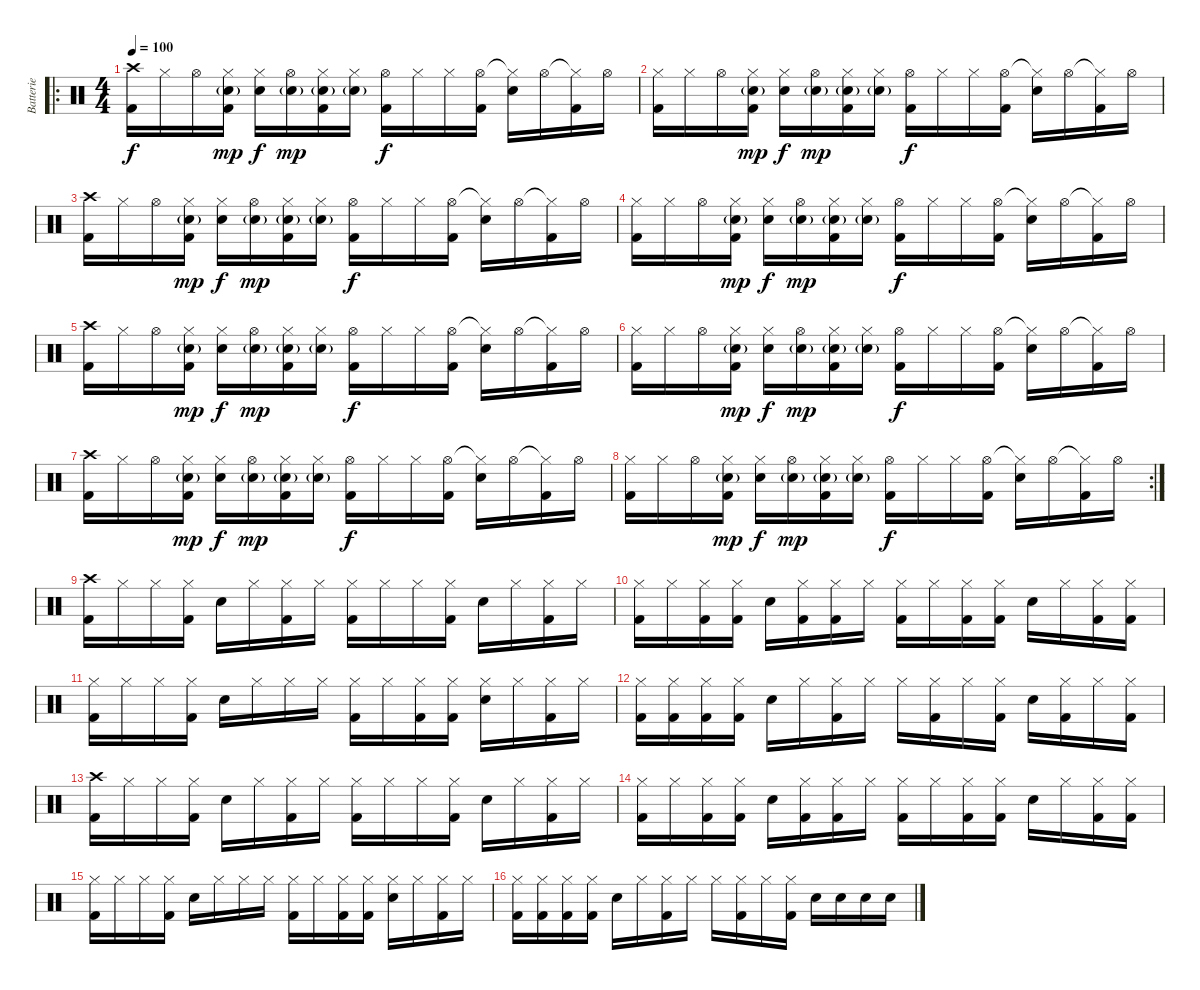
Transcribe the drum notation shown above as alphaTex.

\track ("Batterie" "Batterie") {instrument percussion}
\staff {score}
\articulation defaults
\ro
\ts (4 4)
\tempo 100
\clef neutral
\ks c
("Crash high (hit)" "Kick (hit) 2").16{dy f} "Hi-Hat (closed)".16 "Hi-Hat (open)".16 ("Hi-Hat (closed)" "Snare (hit) 2"{g} "Kick (hit) 2").16{dy mp} ("Hi-Hat (closed)" "Snare (hit) 2").16{dy f} ("Hi-Hat (open)" "Snare (hit) 2"{g}).16{dy mp} ("Hi-Hat (closed)" "Snare (hit) 2"{g} "Kick (hit) 2").16 ("Hi-Hat (closed)" "Snare (hit) 2"{g}).16 ("Hi-Hat (open)" "Kick (hit) 2").16{dy f} "Hi-Hat (closed)".16 "Hi-Hat (closed)".16 ("Hi-Hat (open)" "Kick (hit) 2").16 ("Hi-Hat (closed)"{t} "Snare (hit) 2").16 "Hi-Hat (open)".16 ("Hi-Hat (closed)"{t} "Kick (hit) 2").16 "Hi-Hat (open)".16 |
("Hi-Hat (closed)" "Kick (hit) 2").16 "Hi-Hat (closed)".16 "Hi-Hat (open)".16 ("Hi-Hat (closed)" "Snare (hit) 2"{g} "Kick (hit) 2").16{dy mp} ("Hi-Hat (closed)" "Snare (hit) 2").16{dy f} ("Hi-Hat (open)" "Snare (hit) 2"{g}).16{dy mp} ("Hi-Hat (closed)" "Snare (hit) 2"{g} "Kick (hit) 2").16 ("Hi-Hat (closed)" "Snare (hit) 2"{g}).16 ("Hi-Hat (open)" "Kick (hit) 2").16{dy f} "Hi-Hat (closed)".16 "Hi-Hat (closed)".16 ("Hi-Hat (open)" "Kick (hit) 2").16 ("Hi-Hat (closed)"{t} "Snare (hit) 2").16 "Hi-Hat (open)".16 ("Hi-Hat (closed)"{t} "Kick (hit) 2").16 "Hi-Hat (open)".16 |
("Crash high (hit)" "Kick (hit) 2").16 "Hi-Hat (closed)".16 "Hi-Hat (open)".16 ("Hi-Hat (closed)" "Snare (hit) 2"{g} "Kick (hit) 2").16{dy mp} ("Hi-Hat (closed)" "Snare (hit) 2").16{dy f} ("Hi-Hat (open)" "Snare (hit) 2"{g}).16{dy mp} ("Hi-Hat (closed)" "Snare (hit) 2"{g} "Kick (hit) 2").16 ("Hi-Hat (closed)" "Snare (hit) 2"{g}).16 ("Hi-Hat (open)" "Kick (hit) 2").16{dy f} "Hi-Hat (closed)".16 "Hi-Hat (closed)".16 ("Hi-Hat (open)" "Kick (hit) 2").16 ("Hi-Hat (closed)"{t} "Snare (hit) 2").16 "Hi-Hat (open)".16 ("Hi-Hat (closed)"{t} "Kick (hit) 2").16 "Hi-Hat (open)".16 |
("Hi-Hat (closed)" "Kick (hit) 2").16 "Hi-Hat (closed)".16 "Hi-Hat (open)".16 ("Hi-Hat (closed)" "Snare (hit) 2"{g} "Kick (hit) 2").16{dy mp} ("Hi-Hat (closed)" "Snare (hit) 2").16{dy f} ("Hi-Hat (open)" "Snare (hit) 2"{g}).16{dy mp} ("Hi-Hat (closed)" "Snare (hit) 2"{g} "Kick (hit) 2").16 ("Hi-Hat (closed)" "Snare (hit) 2"{g}).16 ("Hi-Hat (open)" "Kick (hit) 2").16{dy f} "Hi-Hat (closed)".16 "Hi-Hat (closed)".16 ("Hi-Hat (open)" "Kick (hit) 2").16 ("Hi-Hat (closed)"{t} "Snare (hit) 2").16 "Hi-Hat (open)".16 ("Hi-Hat (closed)"{t} "Kick (hit) 2").16 "Hi-Hat (open)".16 |
("Crash high (hit)" "Kick (hit) 2").16 "Hi-Hat (closed)".16 "Hi-Hat (open)".16 ("Hi-Hat (closed)" "Snare (hit) 2"{g} "Kick (hit) 2").16{dy mp} ("Hi-Hat (closed)" "Snare (hit) 2").16{dy f} ("Hi-Hat (open)" "Snare (hit) 2"{g}).16{dy mp} ("Hi-Hat (closed)" "Snare (hit) 2"{g} "Kick (hit) 2").16 ("Hi-Hat (closed)" "Snare (hit) 2"{g}).16 ("Hi-Hat (open)" "Kick (hit) 2").16{dy f} "Hi-Hat (closed)".16 "Hi-Hat (closed)".16 ("Hi-Hat (open)" "Kick (hit) 2").16 ("Hi-Hat (closed)"{t} "Snare (hit) 2").16 "Hi-Hat (open)".16 ("Hi-Hat (closed)"{t} "Kick (hit) 2").16 "Hi-Hat (open)".16 |
("Hi-Hat (closed)" "Kick (hit) 2").16 "Hi-Hat (closed)".16 "Hi-Hat (open)".16 ("Hi-Hat (closed)" "Snare (hit) 2"{g} "Kick (hit) 2").16{dy mp} ("Hi-Hat (closed)" "Snare (hit) 2").16{dy f} ("Hi-Hat (open)" "Snare (hit) 2"{g}).16{dy mp} ("Hi-Hat (closed)" "Snare (hit) 2"{g} "Kick (hit) 2").16 ("Hi-Hat (closed)" "Snare (hit) 2"{g}).16 ("Hi-Hat (open)" "Kick (hit) 2").16{dy f} "Hi-Hat (closed)".16 "Hi-Hat (closed)".16 ("Hi-Hat (open)" "Kick (hit) 2").16 ("Hi-Hat (closed)"{t} "Snare (hit) 2").16 "Hi-Hat (open)".16 ("Hi-Hat (closed)"{t} "Kick (hit) 2").16 "Hi-Hat (open)".16 |
("Crash high (hit)" "Kick (hit) 2").16 "Hi-Hat (closed)".16 "Hi-Hat (open)".16 ("Hi-Hat (closed)" "Snare (hit) 2"{g} "Kick (hit) 2").16{dy mp} ("Hi-Hat (closed)" "Snare (hit) 2").16{dy f} ("Hi-Hat (open)" "Snare (hit) 2"{g}).16{dy mp} ("Hi-Hat (closed)" "Snare (hit) 2"{g} "Kick (hit) 2").16 ("Hi-Hat (closed)" "Snare (hit) 2"{g}).16 ("Hi-Hat (open)" "Kick (hit) 2").16{dy f} "Hi-Hat (closed)".16 "Hi-Hat (closed)".16 ("Hi-Hat (open)" "Kick (hit) 2").16 ("Hi-Hat (closed)"{t} "Snare (hit) 2").16 "Hi-Hat (open)".16 ("Hi-Hat (closed)"{t} "Kick (hit) 2").16 "Hi-Hat (open)".16 |
\rc 2
("Hi-Hat (closed)" "Kick (hit) 2").16 "Hi-Hat (closed)".16 "Hi-Hat (open)".16 ("Hi-Hat (closed)" "Snare (hit) 2"{g} "Kick (hit) 2").16{dy mp} ("Hi-Hat (closed)" "Snare (hit) 2").16{dy f} ("Hi-Hat (open)" "Snare (hit) 2"{g}).16{dy mp} ("Hi-Hat (closed)" "Snare (hit) 2"{g} "Kick (hit) 2").16 ("Hi-Hat (closed)" "Snare (hit) 2"{g}).16 ("Hi-Hat (open)" "Kick (hit) 2").16{dy f} "Hi-Hat (closed)".16 "Hi-Hat (closed)".16 ("Hi-Hat (open)" "Kick (hit) 2").16 ("Hi-Hat (closed)"{t} "Snare (hit) 2").16 "Hi-Hat (open)".16 ("Hi-Hat (closed)"{t} "Kick (hit) 2").16 "Hi-Hat (open)".16 |
("Crash high (hit)" "Kick (hit) 2").16 "Hi-Hat (closed)".16 "Hi-Hat (closed)".16 ("Hi-Hat (closed)" "Kick (hit) 2").16 "Snare (hit) 2".16 "Hi-Hat (closed)".16 ("Hi-Hat (closed)" "Kick (hit) 2").16 "Hi-Hat (closed)".16 ("Hi-Hat (closed)" "Kick (hit) 2").16 "Hi-Hat (closed)".16 "Hi-Hat (closed)".16 ("Hi-Hat (closed)" "Kick (hit) 2").16 "Snare (hit) 2".16 "Hi-Hat (closed)".16 ("Hi-Hat (closed)" "Kick (hit) 2").16 "Hi-Hat (closed)".16 |
("Hi-Hat (closed)" "Kick (hit) 2").16 "Hi-Hat (closed)".16 ("Hi-Hat (closed)" "Kick (hit) 2").16 ("Hi-Hat (closed)" "Kick (hit) 2").16 "Snare (hit) 2".16 ("Hi-Hat (closed)" "Kick (hit) 2").16 ("Hi-Hat (closed)" "Kick (hit) 2").16 "Hi-Hat (closed)".16 ("Hi-Hat (closed)" "Kick (hit) 2").16 "Hi-Hat (closed)".16 ("Hi-Hat (closed)" "Kick (hit) 2").16 ("Hi-Hat (closed)" "Kick (hit) 2").16 "Snare (hit) 2".16 "Hi-Hat (closed)".16 ("Hi-Hat (closed)" "Kick (hit) 2").16 ("Hi-Hat (closed)" "Kick (hit) 2").16 |
("Hi-Hat (closed)" "Kick (hit) 2").16 "Hi-Hat (closed)".16 "Hi-Hat (closed)".16 ("Hi-Hat (closed)" "Kick (hit) 2").16 "Snare (hit) 2".16 "Hi-Hat (closed)".16 "Hi-Hat (closed)".16 "Hi-Hat (closed)".16 ("Hi-Hat (closed)" "Kick (hit) 2").16 "Hi-Hat (closed)".16 ("Hi-Hat (closed)" "Kick (hit) 2").16 ("Hi-Hat (closed)" "Kick (hit) 2").16 ("Hi-Hat (closed)" "Snare (hit) 2").16 "Hi-Hat (closed)".16 ("Hi-Hat (closed)" "Kick (hit) 2").16 "Hi-Hat (closed)".16 |
("Hi-Hat (closed)" "Kick (hit) 2").16 ("Hi-Hat (closed)" "Kick (hit) 2").16 ("Hi-Hat (closed)" "Kick (hit) 2").16 ("Hi-Hat (closed)" "Kick (hit) 2").16 "Snare (hit) 2".16 "Hi-Hat (closed)".16 ("Hi-Hat (closed)" "Kick (hit) 2").16 "Hi-Hat (closed)".16 "Hi-Hat (closed)".16 ("Hi-Hat (closed)" "Kick (hit) 2").16 "Hi-Hat (closed)".16 ("Hi-Hat (closed)" "Kick (hit) 2").16 "Snare (hit) 2".16 ("Hi-Hat (closed)" "Kick (hit) 2").16 "Hi-Hat (closed)".16 ("Hi-Hat (closed)" "Kick (hit) 2").16 |
("Crash high (hit)" "Kick (hit) 2").16 "Hi-Hat (closed)".16 "Hi-Hat (closed)".16 ("Hi-Hat (closed)" "Kick (hit) 2").16 "Snare (hit) 2".16 "Hi-Hat (closed)".16 ("Hi-Hat (closed)" "Kick (hit) 2").16 "Hi-Hat (closed)".16 ("Hi-Hat (closed)" "Kick (hit) 2").16 "Hi-Hat (closed)".16 "Hi-Hat (closed)".16 ("Hi-Hat (closed)" "Kick (hit) 2").16 "Snare (hit) 2".16 "Hi-Hat (closed)".16 ("Hi-Hat (closed)" "Kick (hit) 2").16 "Hi-Hat (closed)".16 |
("Hi-Hat (closed)" "Kick (hit) 2").16 "Hi-Hat (closed)".16 ("Hi-Hat (closed)" "Kick (hit) 2").16 ("Hi-Hat (closed)" "Kick (hit) 2").16 "Snare (hit) 2".16 ("Hi-Hat (closed)" "Kick (hit) 2").16 ("Hi-Hat (closed)" "Kick (hit) 2").16 "Hi-Hat (closed)".16 ("Hi-Hat (closed)" "Kick (hit) 2").16 "Hi-Hat (closed)".16 ("Hi-Hat (closed)" "Kick (hit) 2").16 ("Hi-Hat (closed)" "Kick (hit) 2").16 "Snare (hit) 2".16 "Hi-Hat (closed)".16 ("Hi-Hat (closed)" "Kick (hit) 2").16 ("Hi-Hat (closed)" "Kick (hit) 2").16 |
("Hi-Hat (closed)" "Kick (hit) 2").16 "Hi-Hat (closed)".16 "Hi-Hat (closed)".16 ("Hi-Hat (closed)" "Kick (hit) 2").16 "Snare (hit) 2".16 "Hi-Hat (closed)".16 "Hi-Hat (closed)".16 "Hi-Hat (closed)".16 ("Hi-Hat (closed)" "Kick (hit) 2").16 "Hi-Hat (closed)".16 ("Hi-Hat (closed)" "Kick (hit) 2").16 ("Hi-Hat (closed)" "Kick (hit) 2").16 ("Hi-Hat (closed)" "Snare (hit) 2").16 "Hi-Hat (closed)".16 ("Hi-Hat (closed)" "Kick (hit) 2").16 "Hi-Hat (closed)".16 |
("Hi-Hat (closed)" "Kick (hit) 2").16 ("Hi-Hat (closed)" "Kick (hit) 2").16 ("Hi-Hat (closed)" "Kick (hit) 2").16 ("Hi-Hat (closed)" "Kick (hit) 2").16 "Snare (hit) 2".16 "Hi-Hat (closed)".16 ("Hi-Hat (closed)" "Kick (hit) 2").16 "Hi-Hat (closed)".16 "Hi-Hat (closed)".16 ("Hi-Hat (closed)" "Kick (hit) 2").16 "Hi-Hat (closed)".16 ("Hi-Hat (closed)" "Kick (hit) 2").16 "Snare (hit) 2".16 "Snare (hit) 2".16 "Snare (hit) 2".16 "Snare (hit) 2".16
